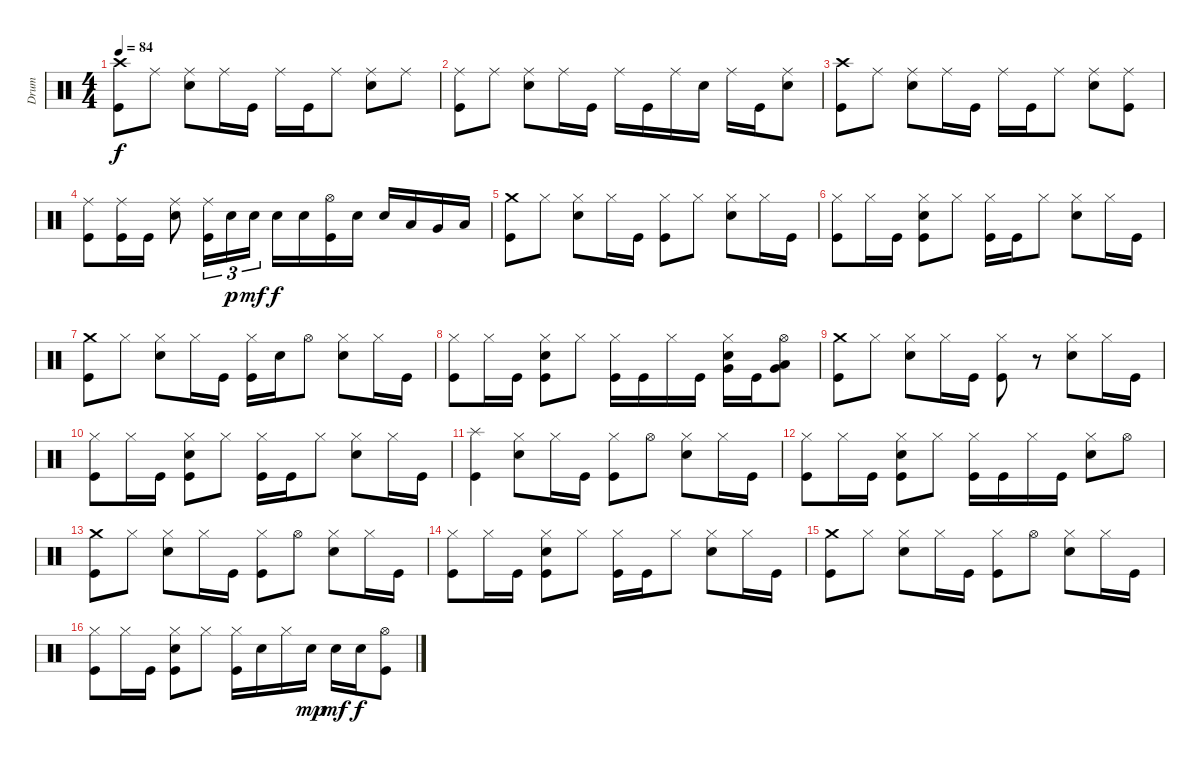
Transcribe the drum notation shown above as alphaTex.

\track ("Drum" "Drum") {instrument percussion}
\staff {score}
\articulation defaults
\ts (4 4)
\tempo 84
\clef neutral
\ks c
("Crash high (hit)" "Kick (hit)").8{dy f} "Ride (middle)".8 ("Ride (middle)" "Electric Snare (hit)").8 "Ride (middle)".16 "Kick (hit)".16 "Ride (middle)".16 "Kick (hit)".16 "Ride (middle)".8 ("Ride (middle)" "Electric Snare (hit)").8 "Ride (middle)".8 |
("Ride (middle)" "Kick (hit)").8 "Ride (middle)".8 ("Ride (middle)" "Electric Snare (hit)").8 "Ride (middle)".16 "Kick (hit)".16 "Ride (middle)".16 "Kick (hit)".16 "Ride (middle)".16 "Electric Snare (hit)".16 "Ride (middle)".16 "Kick (hit)".16 ("Ride (middle)" "Electric Snare (hit)").8 |
("Crash high (hit)" "Kick (hit)").8 "Ride (middle)".8 ("Ride (middle)" "Electric Snare (hit)").8 "Ride (middle)".16 "Kick (hit)".16 "Ride (middle)".16 "Kick (hit)".16 "Ride (middle)".8 ("Ride (middle)" "Electric Snare (hit)").8 ("Ride (middle)" "Kick (hit)").8 |
("Ride (middle)" "Kick (hit)").8 ("Ride (middle)" "Kick (hit)").16 "Kick (hit)".16 ("Ride (middle)" "Electric Snare (hit)").8 ("Ride (middle)" "Kick (hit)").16{tu (3 2)} "Electric Snare (hit)".16{tu (3 2) dy p} "Electric Snare (hit)".16{tu (3 2) dy mf} "Electric Snare (hit)".16{dy f} "Electric Snare (hit)".16 ("Hi-Hat (open)" "Kick (hit)").16 "Electric Snare (hit)".16 "Electric Snare (hit)".16 "Low Tom (hit)".16 "Very Low Tom (hit)".16 "Low Floor Tom (hit)".16 |
("Crash medium (hit)" "Kick (hit)").8 "Hi-Hat (closed)".8 ("Hi-Hat (closed)" "Electric Snare (hit)").8 "Hi-Hat (closed)".16 "Kick (hit)".16 ("Hi-Hat (closed)" "Kick (hit)").8 "Hi-Hat (closed)".8 ("Hi-Hat (closed)" "Electric Snare (hit)").8 "Hi-Hat (closed)".16 "Kick (hit)".16 |
("Hi-Hat (closed)" "Kick (hit)").8 "Hi-Hat (closed)".16 "Kick (hit)".16 ("Hi-Hat (closed)" "Electric Snare (hit)" "Kick (hit)").8 "Hi-Hat (closed)".8 ("Hi-Hat (closed)" "Kick (hit)").16 "Kick (hit)".16 "Hi-Hat (closed)".8 ("Hi-Hat (closed)" "Electric Snare (hit)").8 "Hi-Hat (closed)".16 "Kick (hit)".16 |
("Crash medium (hit)" "Kick (hit)").8 "Hi-Hat (closed)".8 ("Hi-Hat (closed)" "Electric Snare (hit)").8 "Hi-Hat (closed)".16 "Kick (hit)".16 ("Hi-Hat (closed)" "Kick (hit)").16 "Electric Snare (hit)".16 "Hi-Hat (open)".8 ("Hi-Hat (closed)" "Electric Snare (hit)").8 "Hi-Hat (closed)".16 "Kick (hit)".16 |
("Hi-Hat (closed)" "Kick (hit)").8 "Hi-Hat (closed)".16 "Kick (hit)".16 ("Hi-Hat (closed)" "Electric Snare (hit)" "Kick (hit)").8 "Hi-Hat (closed)".8 ("Hi-Hat (closed)" "Kick (hit)").16 "Kick (hit)".16 "Hi-Hat (closed)".16 "Kick (hit)".16 ("Hi-Hat (closed)" "Very Low Tom (hit)" "Electric Snare (hit)").16 "Kick (hit)".16 ("Hi-Hat (open)" "Low Floor Tom (hit)" "Very Low Tom (hit)").8 |
("Crash medium (hit)" "Kick (hit)").8 "Hi-Hat (closed)".8 ("Hi-Hat (closed)" "Electric Snare (hit)").8 "Hi-Hat (closed)".16 "Kick (hit)".16 ("Hi-Hat (closed)" "Kick (hit)").8 r.8 ("Hi-Hat (closed)" "Electric Snare (hit)").8 "Hi-Hat (closed)".16 "Kick (hit)".16 |
("Hi-Hat (closed)" "Kick (hit)").8 "Hi-Hat (closed)".16 "Kick (hit)".16 ("Hi-Hat (closed)" "Electric Snare (hit)" "Kick (hit)").8 "Hi-Hat (closed)".8 ("Hi-Hat (closed)" "Kick (hit)").16 "Kick (hit)".16 "Hi-Hat (closed)".8 ("Hi-Hat (closed)" "Electric Snare (hit)").8 "Hi-Hat (closed)".16 "Kick (hit)".16 |
("Splash (hit)" "Kick (hit)").4 ("Hi-Hat (closed)" "Electric Snare (hit)").8 "Hi-Hat (closed)".16 "Kick (hit)".16 ("Hi-Hat (closed)" "Kick (hit)").8 "Hi-Hat (open)".8 ("Hi-Hat (closed)" "Electric Snare (hit)").8 "Hi-Hat (closed)".16 "Kick (hit)".16 |
("Hi-Hat (closed)" "Kick (hit)").8 "Hi-Hat (closed)".16 "Kick (hit)".16 ("Hi-Hat (closed)" "Electric Snare (hit)" "Kick (hit)").8 "Hi-Hat (closed)".8 ("Hi-Hat (closed)" "Kick (hit)").16 "Kick (hit)".16 "Hi-Hat (closed)".16 "Kick (hit)".16 ("Hi-Hat (closed)" "Electric Snare (hit)").8 "Hi-Hat (open)".8 |
("Crash medium (hit)" "Kick (hit)").8 "Hi-Hat (closed)".8 ("Hi-Hat (closed)" "Electric Snare (hit)").8 "Hi-Hat (closed)".16 "Kick (hit)".16 ("Hi-Hat (closed)" "Kick (hit)").8 "Hi-Hat (open)".8 ("Hi-Hat (closed)" "Electric Snare (hit)").8 "Hi-Hat (closed)".16 "Kick (hit)".16 |
("Hi-Hat (closed)" "Kick (hit)").8 "Hi-Hat (closed)".16 "Kick (hit)".16 ("Hi-Hat (closed)" "Electric Snare (hit)" "Kick (hit)").8 "Hi-Hat (closed)".8 ("Hi-Hat (closed)" "Kick (hit)").16 "Kick (hit)".16 "Hi-Hat (closed)".8 ("Hi-Hat (closed)" "Electric Snare (hit)").8 "Hi-Hat (closed)".16 "Kick (hit)".16 |
("Crash medium (hit)" "Kick (hit)").8 "Hi-Hat (closed)".8 ("Hi-Hat (closed)" "Electric Snare (hit)").8 "Hi-Hat (closed)".16 "Kick (hit)".16 ("Hi-Hat (closed)" "Kick (hit)").8 "Hi-Hat (open)".8 ("Hi-Hat (closed)" "Electric Snare (hit)").8 "Hi-Hat (closed)".16 "Kick (hit)".16 |
("Hi-Hat (closed)" "Kick (hit)").8 "Hi-Hat (closed)".16 "Kick (hit)".16 ("Hi-Hat (closed)" "Electric Snare (hit)" "Kick (hit)").8 "Hi-Hat (closed)".8 ("Hi-Hat (closed)" "Kick (hit)").16 "Electric Snare (hit)".16 "Hi-Hat (closed)".16 "Electric Snare (hit)".16{dy mp} "Electric Snare (hit)".16{dy mf} "Electric Snare (hit)".16{dy f} ("Hi-Hat (open)" "Kick (hit)").8
